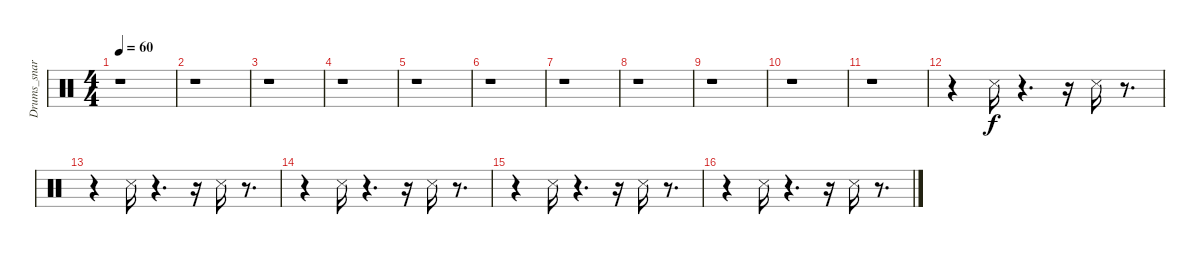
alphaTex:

\track ("Drums_snare&tom" "Drums_snar") {instrument percussion}
\staff {score}
\articulation defaults
\ts (4 4)
\tempo 60
\clef neutral
\ks c
r.1{dy f} |
r.1 |
r.1 |
r.1 |
r.1 |
r.1 |
r.1 |
r.1 |
r.1 |
r.1 |
r.1 |
r.4 "Snare (side stick) 3".16 r.4{d} r.16 "Snare (side stick) 3".16 r.8{d} |
r.4 "Snare (side stick) 3".16 r.4{d} r.16 "Snare (side stick) 3".16 r.8{d} |
r.4 "Snare (side stick) 3".16 r.4{d} r.16 "Snare (side stick) 3".16 r.8{d} |
r.4 "Snare (side stick) 3".16 r.4{d} r.16 "Snare (side stick) 3".16 r.8{d} |
r.4 "Snare (side stick) 3".16 r.4{d} r.16 "Snare (side stick) 3".16 r.8{d}
